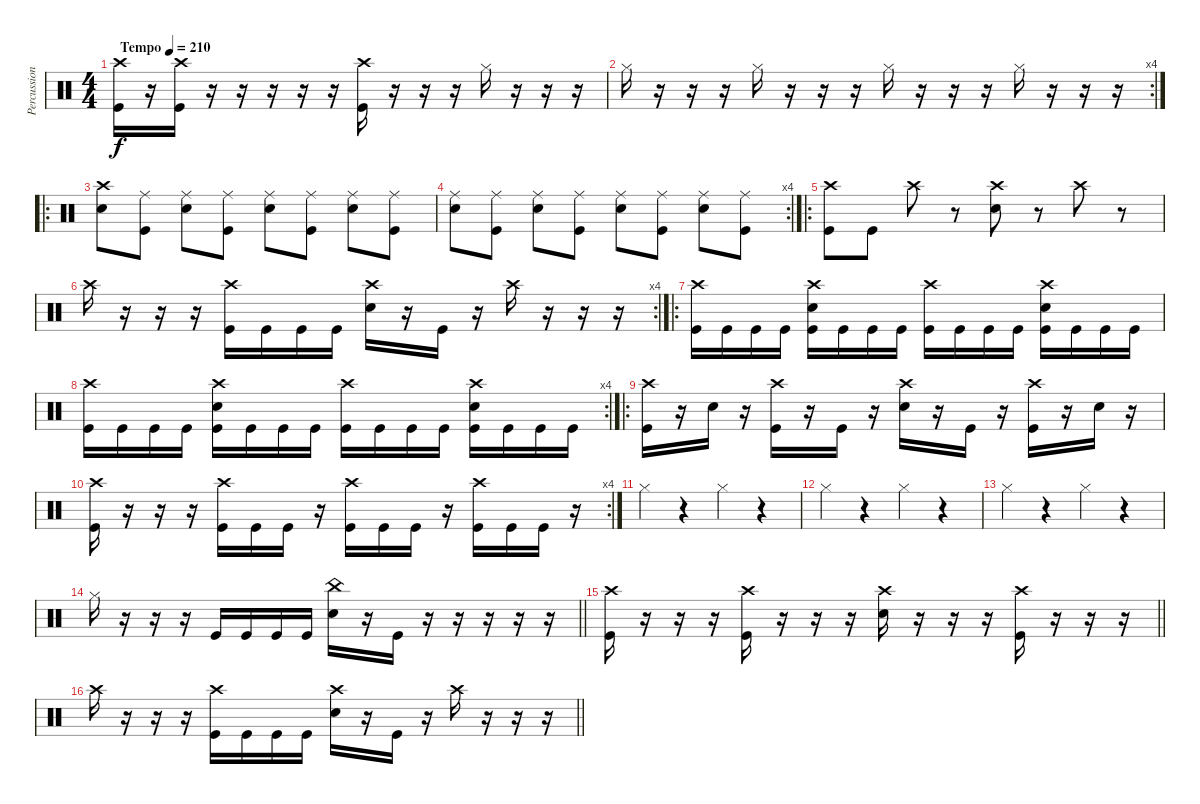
\track ("Percussion" "Percussion") {instrument percussion}
\staff {score}
\articulation defaults
\ts (4 4)
\tempo (210 "Tempo")
\clef neutral
\ks c
("Crash high (hit)" "Kick (hit)").16{dy f} r.16 ("Crash high (hit)" "Kick (hit)").16 r.16 r.16 r.16 r.16 r.16 ("Crash high (hit)" "Kick (hit)").16 r.16 r.16 r.16 "Hi-Hat (closed)".16 r.16 r.16 r.16 |
\rc 4 "Hi-Hat (closed)".16
r.16 r.16 r.16 "Hi-Hat (closed)".16 r.16 r.16 r.16 "Hi-Hat (closed)".16 r.16 r.16 r.16 "Hi-Hat (closed)".16 r.16 r.16 r.16 |
\ro
("Electric Snare (hit)" "Crash high (hit)").8 ("Kick (hit)" "Ride (middle)").8 ("Electric Snare (hit)" "Ride (middle)").8 ("Kick (hit)" "Ride (middle)").8 ("Electric Snare (hit)" "Ride (middle)").8 ("Kick (hit)" "Ride (middle)").8 ("Electric Snare (hit)" "Ride (middle)").8 ("Kick (hit)" "Ride (middle)").8 |
\rc 4
("Electric Snare (hit)" "Ride (middle)").8 ("Kick (hit)" "Ride (middle)").8 ("Electric Snare (hit)" "Ride (middle)").8 ("Kick (hit)" "Ride (middle)").8 ("Electric Snare (hit)" "Ride (middle)").8 ("Kick (hit)" "Ride (middle)").8 ("Electric Snare (hit)" "Ride (middle)").8 ("Kick (hit)" "Ride (middle)").8 |
\ro
("Kick (hit)" "Crash high (hit)").8 "Kick (hit)".8 "Crash high (hit)".8 r.8 ("Electric Snare (hit)" "Crash high (hit)").8 r.8 "Crash high (hit)".8 r.8 |
\rc 4 "Crash high (hit)".16
r.16 r.16 r.16 ("Kick (hit)" "Crash high (hit)").16 "Kick (hit)".16 "Kick (hit)".16 "Kick (hit)".16 ("Electric Snare (hit)" "Crash high (hit)").16 r.16 "Kick (hit)".16 r.16 "Crash high (hit)".16 r.16 r.16 r.16 |
\ro
("Kick (hit)" "Crash high (hit)").16 "Kick (hit)".16 "Kick (hit)".16 "Kick (hit)".16 ("Kick (hit)" "Electric Snare (hit)" "Crash high (hit)").16 "Kick (hit)".16 "Kick (hit)".16 "Kick (hit)".16 ("Kick (hit)" "Crash high (hit)").16 "Kick (hit)".16 "Kick (hit)".16 "Kick (hit)".16 ("Kick (hit)" "Electric Snare (hit)" "Crash high (hit)").16 "Kick (hit)".16 "Kick (hit)".16 "Kick (hit)".16 |
\rc 4
("Kick (hit)" "Crash high (hit)").16 "Kick (hit)".16 "Kick (hit)".16 "Kick (hit)".16 ("Kick (hit)" "Electric Snare (hit)" "Crash high (hit)").16 "Kick (hit)".16 "Kick (hit)".16 "Kick (hit)".16 ("Kick (hit)" "Crash high (hit)").16 "Kick (hit)".16 "Kick (hit)".16 "Kick (hit)".16 ("Kick (hit)" "Electric Snare (hit)" "Crash high (hit)").16 "Kick (hit)".16 "Kick (hit)".16 "Kick (hit)".16 |
\ro
("Kick (hit)" "Crash high (hit)").16 r.16 "Electric Snare (hit)".16 r.16 ("Kick (hit)" "Crash high (hit)").16 r.16 "Kick (hit)".16 r.16 ("Electric Snare (hit)" "Crash high (hit)").16 r.16 "Kick (hit)".16 r.16 ("Kick (hit)" "Crash high (hit)").16 r.16 "Electric Snare (hit)".16 r.16 |
\rc 4
("Kick (hit)" "Crash high (hit)").16 r.16 r.16 r.16 ("Kick (hit)" "Crash high (hit)").16 "Kick (hit)".16 "Kick (hit)".16 r.16 ("Kick (hit)" "Crash high (hit)").16 "Kick (hit)".16 "Kick (hit)".16 r.16 ("Kick (hit)" "Crash high (hit)").16 "Kick (hit)".16 "Kick (hit)".16 r.16 |
"Hi-Hat (closed)".4 r.4 "Hi-Hat (closed)".4 r.4 |
"Hi-Hat (closed)".4 r.4 "Hi-Hat (closed)".4 r.4 |
"Hi-Hat (closed)".4 r.4 "Hi-Hat (closed)".4 r.4 |
\barLineRight lightlight "Hi-Hat (closed)".16
r.16 r.16 r.16 "Kick (hit)".16 "Kick (hit)".16 "Kick (hit)".16 "Kick (hit)".16 ("Electric Snare (hit)" "China (hit)").16 r.16 "Kick (hit)".16 r.16 r.16 r.16 r.16 r.16 |
\barLineRight lightlight
("Kick (hit)" "Crash high (hit)").16 r.16 r.16 r.16 ("Kick (hit)" "Crash high (hit)").16 r.16 r.16 r.16 ("Electric Snare (hit)" "Crash high (hit)").16 r.16 r.16 r.16 ("Kick (hit)" "Crash high (hit)").16 r.16 r.16 r.16 |
\barLineRight lightlight "Crash high (hit)".16
r.16 r.16 r.16 ("Kick (hit)" "Crash high (hit)").16 "Kick (hit)".16 "Kick (hit)".16 "Kick (hit)".16 ("Electric Snare (hit)" "Crash high (hit)").16 r.16 "Kick (hit)".16 r.16 "Crash high (hit)".16 r.16 r.16 r.16
